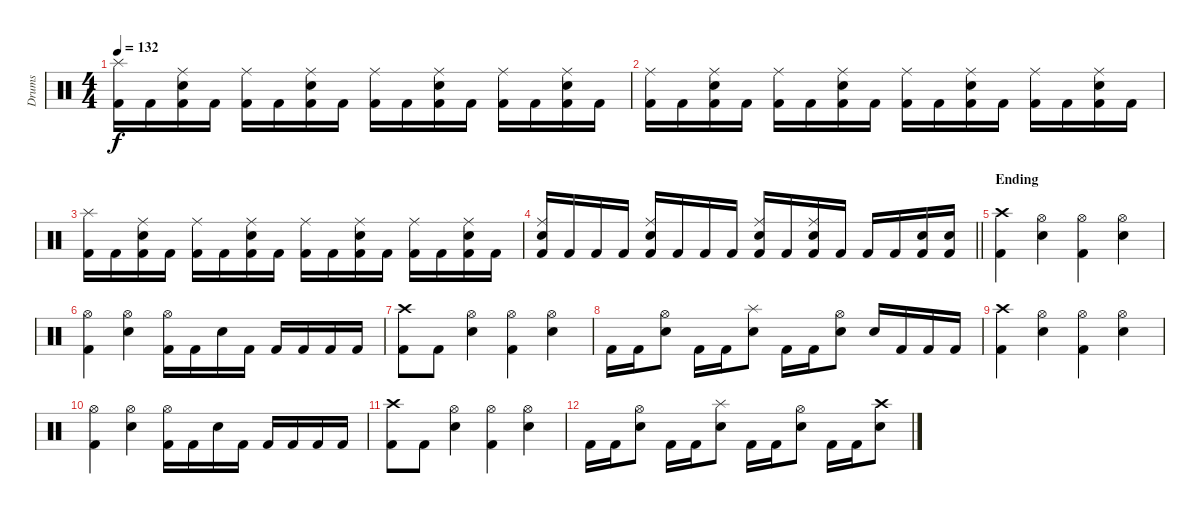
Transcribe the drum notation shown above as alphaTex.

\track ("Drums" "Drums") {instrument percussion}
\staff {score}
\articulation defaults
\ts (4 4)
\tempo 132
\clef neutral
\ks c
("Splash (hit)" "Kick (hit) 2").16{dy f} "Kick (hit) 2".16 ("Ride (middle)" "Electric Snare (hit)" "Kick (hit) 2").16 "Kick (hit) 2".16 ("Ride (middle)" "Kick (hit) 2").16 "Kick (hit) 2".16 ("Ride (middle)" "Electric Snare (hit)" "Kick (hit) 2").16 "Kick (hit) 2".16 ("Ride (middle)" "Kick (hit) 2").16 "Kick (hit) 2".16 ("Ride (middle)" "Electric Snare (hit)" "Kick (hit) 2").16 "Kick (hit) 2".16 ("Ride (middle)" "Kick (hit) 2").16 "Kick (hit) 2".16 ("Ride (middle)" "Electric Snare (hit)" "Kick (hit) 2").16 "Kick (hit) 2".16 |
("Ride (middle)" "Kick (hit) 2").16 "Kick (hit) 2".16 ("Ride (middle)" "Electric Snare (hit)" "Kick (hit) 2").16 "Kick (hit) 2".16 ("Ride (middle)" "Kick (hit) 2").16 "Kick (hit) 2".16 ("Ride (middle)" "Electric Snare (hit)" "Kick (hit) 2").16 "Kick (hit) 2".16 ("Ride (middle)" "Kick (hit) 2").16 "Kick (hit) 2".16 ("Ride (middle)" "Electric Snare (hit)" "Kick (hit) 2").16 "Kick (hit) 2".16 ("Ride (middle)" "Kick (hit) 2").16 "Kick (hit) 2".16 ("Ride (middle)" "Electric Snare (hit)" "Kick (hit) 2").16 "Kick (hit) 2".16 |
("Splash (hit)" "Kick (hit) 2").16 "Kick (hit) 2".16 ("Ride (middle)" "Electric Snare (hit)" "Kick (hit) 2").16 "Kick (hit) 2".16 ("Ride (middle)" "Kick (hit) 2").16 "Kick (hit) 2".16 ("Ride (middle)" "Electric Snare (hit)" "Kick (hit) 2").16 "Kick (hit) 2".16 ("Ride (middle)" "Kick (hit) 2").16 "Kick (hit) 2".16 ("Ride (middle)" "Electric Snare (hit)" "Kick (hit) 2").16 "Kick (hit) 2".16 ("Ride (middle)" "Kick (hit) 2").16 "Kick (hit) 2".16 ("Ride (middle)" "Electric Snare (hit)" "Kick (hit) 2").16 "Kick (hit) 2".16 |
\barLineRight lightlight
("Ride (middle)" "Electric Snare (hit)" "Kick (hit) 2").16 "Kick (hit) 2".16 "Kick (hit) 2".16 "Kick (hit) 2".16 ("Ride (middle)" "Electric Snare (hit)" "Kick (hit) 2").16 "Kick (hit) 2".16 "Kick (hit) 2".16 "Kick (hit) 2".16 ("Ride (middle)" "Electric Snare (hit)" "Kick (hit) 2").16 "Kick (hit) 2".16 ("Ride (middle)" "Electric Snare (hit)" "Kick (hit) 2").16 "Kick (hit) 2".16 "Kick (hit) 2".16 "Kick (hit) 2".16 ("Electric Snare (hit)" "Kick (hit) 2").16 ("Electric Snare (hit)" "Kick (hit) 2").16 |
\section ("" "Ending")
("Crash high (hit)" "Kick (hit) 2").4 ("Hi-Hat (open)" "Electric Snare (hit)").4 ("Hi-Hat (open)" "Kick (hit) 2").4 ("Hi-Hat (open)" "Electric Snare (hit)").4 |
("Hi-Hat (open)" "Kick (hit) 2").4 ("Hi-Hat (open)" "Electric Snare (hit)").4 ("Hi-Hat (open)" "Kick (hit) 2").16 "Kick (hit) 2".16 "Electric Snare (hit)".16 "Kick (hit) 2".16 "Kick (hit) 2".16 "Kick (hit) 2".16 "Kick (hit) 2".16 "Kick (hit) 2".16 |
("Crash high (hit)" "Kick (hit) 2").8 "Kick (hit) 2".8 ("Hi-Hat (open)" "Electric Snare (hit)").4 ("Hi-Hat (open)" "Kick (hit) 2").4 ("Hi-Hat (open)" "Electric Snare (hit)").4 |
"Kick (hit) 2".16 "Kick (hit) 2".16 ("Hi-Hat (open)" "Electric Snare (hit)").8 "Kick (hit) 2".16 "Kick (hit) 2".16 ("Splash (hit)" "Electric Snare (hit)").8 "Kick (hit) 2".16 "Kick (hit) 2".16 ("Hi-Hat (open)" "Electric Snare (hit)").8 "Electric Snare (hit)".16 "Kick (hit) 2".16 "Kick (hit) 2".16 "Kick (hit) 2".16 |
("Crash high (hit)" "Kick (hit) 2").4 ("Hi-Hat (open)" "Electric Snare (hit)").4 ("Hi-Hat (open)" "Kick (hit) 2").4 ("Hi-Hat (open)" "Electric Snare (hit)").4 |
("Hi-Hat (open)" "Kick (hit) 2").4 ("Hi-Hat (open)" "Electric Snare (hit)").4 ("Hi-Hat (open)" "Kick (hit) 2").16 "Kick (hit) 2".16 "Electric Snare (hit)".16 "Kick (hit) 2".16 "Kick (hit) 2".16 "Kick (hit) 2".16 "Kick (hit) 2".16 "Kick (hit) 2".16 |
("Crash high (hit)" "Kick (hit) 2").8 "Kick (hit) 2".8 ("Hi-Hat (open)" "Electric Snare (hit)").4 ("Hi-Hat (open)" "Kick (hit) 2").4 ("Hi-Hat (open)" "Electric Snare (hit)").4 |
"Kick (hit) 2".16 "Kick (hit) 2".16 ("Hi-Hat (open)" "Electric Snare (hit)").8 "Kick (hit) 2".16 "Kick (hit) 2".16 ("Splash (hit)" "Electric Snare (hit)").8 "Kick (hit) 2".16 "Kick (hit) 2".16 ("Hi-Hat (open)" "Electric Snare (hit)").8 "Kick (hit) 2".16 "Kick (hit) 2".16 ("Crash high (hit)" "Electric Snare (hit)").8
